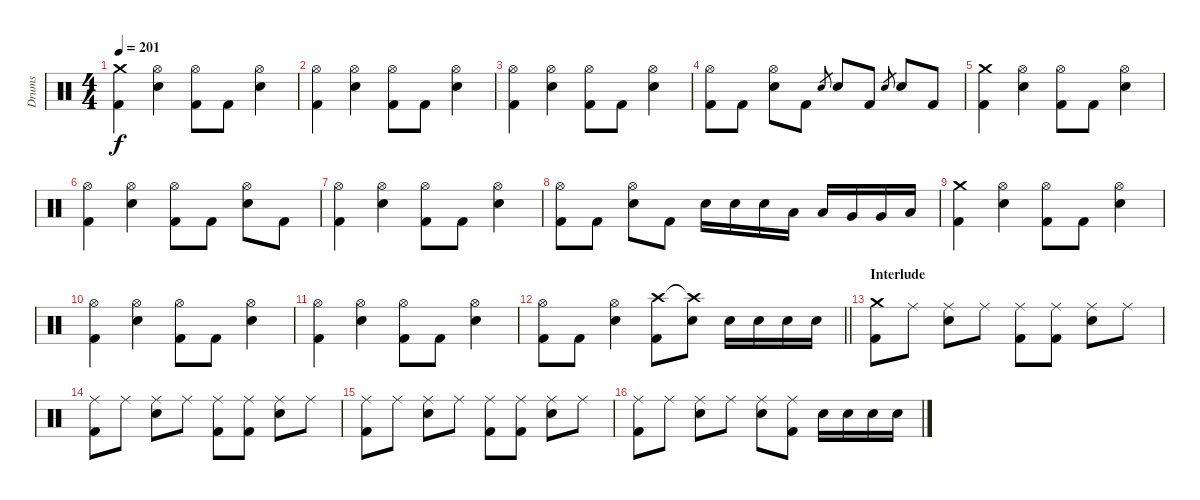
\track ("Drums" "Drums") {instrument percussion}
\staff {score}
\articulation defaults
\ts (4 4)
\tempo 201
\clef neutral
\ks c
("Crash medium (hit)" "Kick (hit) 2").4{dy f} ("Hi-Hat (open)" "Electric Snare (hit)").4 ("Hi-Hat (open)" "Kick (hit) 2").8 "Kick (hit) 2".8 ("Hi-Hat (open)" "Electric Snare (hit)").4 |
("Hi-Hat (open)" "Kick (hit) 2").4 ("Hi-Hat (open)" "Electric Snare (hit)").4 ("Hi-Hat (open)" "Kick (hit) 2").8 "Kick (hit) 2".8 ("Hi-Hat (open)" "Electric Snare (hit)").4 |
("Hi-Hat (open)" "Kick (hit) 2").4 ("Hi-Hat (open)" "Electric Snare (hit)").4 ("Hi-Hat (open)" "Kick (hit) 2").8 "Kick (hit) 2".8 ("Hi-Hat (open)" "Electric Snare (hit)").4 |
("Hi-Hat (open)" "Kick (hit) 2").8 "Kick (hit) 2".8 ("Hi-Hat (open)" "Electric Snare (hit)").8 "Kick (hit) 2".8 "Electric Snare (hit)".8{gr} "Electric Snare (hit)".8 "Kick (hit) 2".8 "Electric Snare (hit)".8{gr} "Electric Snare (hit)".8 "Kick (hit) 2".8 |
("Crash medium (hit)" "Kick (hit) 2").4 ("Hi-Hat (open)" "Electric Snare (hit)").4 ("Hi-Hat (open)" "Kick (hit) 2").8 "Kick (hit) 2".8 ("Hi-Hat (open)" "Electric Snare (hit)").4 |
("Hi-Hat (open)" "Kick (hit) 2").4 ("Hi-Hat (open)" "Electric Snare (hit)").4 ("Hi-Hat (open)" "Kick (hit) 2").8 "Kick (hit) 2".8 ("Hi-Hat (open)" "Electric Snare (hit)").8 "Kick (hit) 2".8 |
("Hi-Hat (open)" "Kick (hit) 2").4 ("Hi-Hat (open)" "Electric Snare (hit)").4 ("Hi-Hat (open)" "Kick (hit) 2").8 "Kick (hit) 2".8 ("Hi-Hat (open)" "Electric Snare (hit)").4 |
("Hi-Hat (open)" "Kick (hit) 2").8 "Kick (hit) 2".8 ("Hi-Hat (open)" "Electric Snare (hit)").8 "Kick (hit) 2".8 "Electric Snare (hit)".16 "Electric Snare (hit)".16 "Electric Snare (hit)".16 "Low Tom (hit)".16 "Low Tom (hit)".16 "Very Low Tom (hit)".16 "Very Low Tom (hit)".16 "Low Floor Tom (hit)".16 |
("Crash medium (hit)" "Kick (hit) 2").4 ("Hi-Hat (open)" "Electric Snare (hit)").4 ("Hi-Hat (open)" "Kick (hit) 2").8 "Kick (hit) 2".8 ("Hi-Hat (open)" "Electric Snare (hit)").4 |
("Hi-Hat (open)" "Kick (hit) 2").4 ("Hi-Hat (open)" "Electric Snare (hit)").4 ("Hi-Hat (open)" "Kick (hit) 2").8 "Kick (hit) 2".8 ("Hi-Hat (open)" "Electric Snare (hit)").4 |
("Hi-Hat (open)" "Kick (hit) 2").4 ("Hi-Hat (open)" "Electric Snare (hit)").4 ("Hi-Hat (open)" "Kick (hit) 2").8 "Kick (hit) 2".8 ("Hi-Hat (open)" "Electric Snare (hit)").4 |
\barLineRight lightlight
("Hi-Hat (open)" "Kick (hit) 2").8 "Kick (hit) 2".8 ("Hi-Hat (open)" "Electric Snare (hit)").4 ("Crash high (hit)" "Kick (hit) 2").8 ("Crash high (hit)"{t} "Electric Snare (hit)").8 "Electric Snare (hit)".16 "Electric Snare (hit)".16 "Electric Snare (hit)".16 "Electric Snare (hit)".16 |
\section ("" "Interlude")
("Crash medium (hit)" "Kick (hit) 2").8 "Ride (middle)".8 ("Ride (middle)" "Electric Snare (hit)").8 "Ride (middle)".8 ("Ride (middle)" "Kick (hit) 2").8 ("Ride (middle)" "Kick (hit) 2").8 ("Ride (middle)" "Electric Snare (hit)").8 "Ride (middle)".8 |
("Ride (middle)" "Kick (hit) 2").8 "Ride (middle)".8 ("Ride (middle)" "Electric Snare (hit)").8 "Ride (middle)".8 ("Ride (middle)" "Kick (hit) 2").8 ("Ride (middle)" "Kick (hit) 2").8 ("Ride (middle)" "Electric Snare (hit)").8 "Ride (middle)".8 |
("Ride (middle)" "Kick (hit) 2").8 "Ride (middle)".8 ("Ride (middle)" "Electric Snare (hit)").8 "Ride (middle)".8 ("Ride (middle)" "Kick (hit) 2").8 ("Ride (middle)" "Kick (hit) 2").8 ("Ride (middle)" "Electric Snare (hit)").8 "Ride (middle)".8 |
("Ride (middle)" "Kick (hit) 2").8 "Ride (middle)".8 ("Ride (middle)" "Electric Snare (hit)").8 "Ride (middle)".8 ("Ride (middle)" "Electric Snare (hit)").8 ("Ride (middle)" "Kick (hit) 2").8 "Electric Snare (hit)".16 "Electric Snare (hit)".16 "Electric Snare (hit)".16 "Electric Snare (hit)".16
